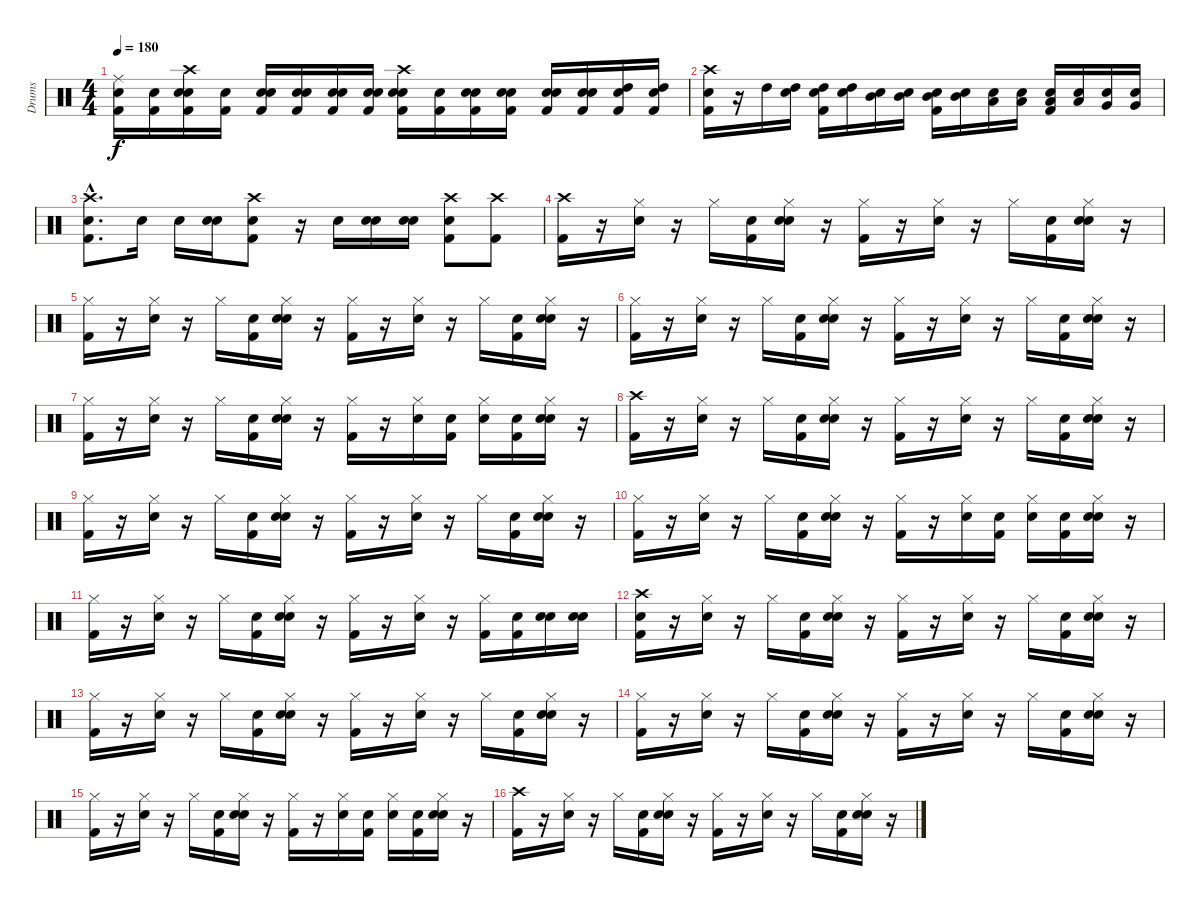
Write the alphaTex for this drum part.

\track ("Drums" "Drums") {instrument percussion}
\staff {score}
\articulation defaults
\ts (4 4)
\tempo 180
\clef neutral
\ks c
("Snare (hit)" "Ride (middle)" "Kick (hit) 2").16{dy f} ("Snare (hit)" "Kick (hit) 2").16 ("Snare (hit)" "Snare (hit) 2" "Crash high (hit)" "Kick (hit) 2").16 ("Snare (hit)" "Kick (hit) 2").16 ("Snare (hit)" "Snare (hit) 2" "Kick (hit) 2").16 ("Snare (hit)" "Snare (hit) 2" "Kick (hit) 2").16 ("Snare (hit)" "Snare (hit) 2" "Kick (hit) 2").16 ("Snare (hit)" "Snare (hit) 2" "Kick (hit) 2").16 ("Snare (hit)" "Crash high (hit)" "Snare (hit) 2" "Kick (hit) 2").16 ("Snare (hit)" "Kick (hit) 2").16 ("Snare (hit)" "Snare (hit) 2" "Kick (hit) 2").16 ("Snare (hit)" "Snare (hit) 2" "Kick (hit) 2").16 ("Snare (hit)" "Snare (hit) 2" "Kick (hit) 2").16 ("Snare (hit)" "Kick (hit) 2" "Snare (hit) 2").16 ("Snare (hit)" "High Tom (hit)" "Kick (hit) 2").16 ("Snare (hit)" "High Tom (hit)" "Kick (hit) 2").16 |
("Snare (hit)" "Crash high (hit)" "Kick (hit) 2").16 r.16 "High Tom (hit)".16 ("Snare (hit)" "High Tom (hit)").16 ("Snare (hit)" "High Tom (hit)" "Kick (hit) 2").16 ("Snare (hit)" "High Tom (hit)").16 ("Snare (hit)" "Mid Tom (hit)").16 ("Snare (hit)" "Mid Tom (hit)").16 ("Snare (hit)" "Mid Tom (hit)" "Kick (hit) 2").16 ("Snare (hit)" "Mid Tom (hit)").16 ("Snare (hit)" "Low Tom (hit)").16 ("Snare (hit)" "Low Tom (hit)").16 ("Snare (hit)" "Low Tom (hit)" "Kick (hit) 2").16 ("Snare (hit)" "Low Tom (hit)").16 ("Snare (hit)" "Very Low Tom (hit)").16 ("Snare (hit)" "Very Low Tom (hit)").16 |
("Snare (hit)"{hac} "Crash high (hit)"{hac} "Kick (hit) 2"{hac}).8{d} "Snare (hit) 2".16 "Snare (hit) 2".16 ("Snare (hit)" "Snare (hit) 2").16 ("Snare (hit)" "Crash high (hit)" "Kick (hit) 2").8 r.16 "Snare (hit) 2".16 ("Snare (hit)" "Snare (hit) 2").16 ("Snare (hit)" "Snare (hit) 2").16 ("Snare (hit)" "Crash high (hit)" "Kick (hit) 2").8 ("Crash high (hit)" "Kick (hit) 2").8 |
("Crash high (hit)" "Kick (hit) 2").16 r.16 ("Snare (hit) 2" "Hi-Hat (closed)").16 r.16 "Hi-Hat (closed)".16 ("Snare (hit)" "Kick (hit) 2").16 ("Snare (hit)" "Snare (hit) 2" "Hi-Hat (closed)").16 r.16 ("Kick (hit) 2" "Hi-Hat (closed)").16 r.16 ("Snare (hit) 2" "Hi-Hat (closed)").16 r.16 "Hi-Hat (closed)".16 ("Snare (hit)" "Kick (hit) 2").16 ("Snare (hit)" "Snare (hit) 2" "Hi-Hat (closed)").16 r.16 |
("Kick (hit) 2" "Hi-Hat (closed)").16 r.16 ("Snare (hit) 2" "Hi-Hat (closed)").16 r.16 "Hi-Hat (closed)".16 ("Snare (hit)" "Kick (hit) 2").16 ("Snare (hit)" "Snare (hit) 2" "Hi-Hat (closed)").16 r.16 ("Kick (hit) 2" "Hi-Hat (closed)").16 r.16 ("Snare (hit) 2" "Hi-Hat (closed)").16 r.16 "Hi-Hat (closed)".16 ("Snare (hit)" "Kick (hit) 2").16 ("Snare (hit)" "Snare (hit) 2" "Hi-Hat (closed)").16 r.16 |
("Kick (hit) 2" "Hi-Hat (closed)").16 r.16 ("Snare (hit) 2" "Hi-Hat (closed)").16 r.16 "Hi-Hat (closed)".16 ("Snare (hit)" "Kick (hit) 2").16 ("Snare (hit)" "Snare (hit) 2" "Hi-Hat (closed)").16 r.16 ("Kick (hit) 2" "Hi-Hat (closed)").16 r.16 ("Snare (hit) 2" "Hi-Hat (closed)").16 r.16 "Hi-Hat (closed)".16 ("Snare (hit)" "Kick (hit) 2").16 ("Snare (hit)" "Snare (hit) 2" "Hi-Hat (closed)").16 r.16 |
("Kick (hit) 2" "Hi-Hat (closed)").16 r.16 ("Snare (hit) 2" "Hi-Hat (closed)").16 r.16 "Hi-Hat (closed)".16 ("Snare (hit)" "Kick (hit) 2").16 ("Snare (hit)" "Snare (hit) 2" "Hi-Hat (closed)").16 r.16 ("Kick (hit) 2" "Hi-Hat (closed)").16 r.16 ("Snare (hit) 2" "Hi-Hat (closed)").16 ("Snare (hit)" "Kick (hit) 2").16 ("Snare (hit)" "Hi-Hat (closed)").16 ("Snare (hit)" "Kick (hit) 2").16 ("Snare (hit)" "Snare (hit) 2" "Hi-Hat (closed)").16 r.16 |
("Kick (hit) 2" "Crash high (hit)").16 r.16 ("Hi-Hat (closed)" "Snare (hit) 2").16 r.16 "Hi-Hat (closed)".16 ("Snare (hit)" "Kick (hit) 2").16 ("Snare (hit)" "Snare (hit) 2" "Hi-Hat (closed)").16 r.16 ("Kick (hit) 2" "Hi-Hat (closed)").16 r.16 ("Snare (hit) 2" "Hi-Hat (closed)").16 r.16 "Hi-Hat (closed)".16 ("Snare (hit)" "Kick (hit) 2").16 ("Snare (hit)" "Snare (hit) 2" "Hi-Hat (closed)").16 r.16 |
("Kick (hit) 2" "Hi-Hat (closed)").16 r.16 ("Snare (hit) 2" "Hi-Hat (closed)").16 r.16 "Hi-Hat (closed)".16 ("Snare (hit)" "Kick (hit) 2").16 ("Snare (hit)" "Snare (hit) 2" "Hi-Hat (closed)").16 r.16 ("Kick (hit) 2" "Hi-Hat (closed)").16 r.16 ("Snare (hit) 2" "Hi-Hat (closed)").16 r.16 "Hi-Hat (closed)".16 ("Snare (hit)" "Kick (hit) 2").16 ("Snare (hit)" "Snare (hit) 2" "Hi-Hat (closed)").16 r.16 |
("Kick (hit) 2" "Hi-Hat (closed)").16 r.16 ("Snare (hit) 2" "Hi-Hat (closed)").16 r.16 "Hi-Hat (closed)".16 ("Snare (hit)" "Kick (hit) 2").16 ("Snare (hit)" "Snare (hit) 2" "Hi-Hat (closed)").16 r.16 ("Hi-Hat (closed)" "Kick (hit) 2").16 r.16 ("Snare (hit) 2" "Hi-Hat (closed)").16 ("Snare (hit)" "Kick (hit) 2").16 ("Snare (hit)" "Hi-Hat (closed)").16 ("Snare (hit)" "Kick (hit) 2").16 ("Snare (hit)" "Snare (hit) 2" "Hi-Hat (closed)").16 r.16 |
("Kick (hit) 2" "Hi-Hat (closed)").16 r.16 ("Snare (hit) 2" "Hi-Hat (closed)").16 r.16 "Hi-Hat (closed)".16 ("Snare (hit)" "Kick (hit) 2").16 ("Snare (hit)" "Snare (hit) 2" "Hi-Hat (closed)").16 r.16 ("Kick (hit) 2" "Hi-Hat (closed)").16 r.16 ("Snare (hit) 2" "Hi-Hat (closed)").16 r.16 ("Kick (hit) 2" "Hi-Hat (closed)").16 ("Snare (hit)" "Kick (hit) 2").16 ("Snare (hit)" "Snare (hit) 2").16 ("Snare (hit)" "Snare (hit) 2").16 |
("Snare (hit)" "Kick (hit) 2" "Crash high (hit)").16 r.16 ("Snare (hit) 2" "Hi-Hat (closed)").16 r.16 "Hi-Hat (closed)".16 ("Snare (hit)" "Kick (hit) 2").16 ("Snare (hit)" "Snare (hit) 2" "Hi-Hat (closed)").16 r.16 ("Kick (hit) 2" "Hi-Hat (closed)").16 r.16 ("Snare (hit) 2" "Hi-Hat (closed)").16 r.16 "Hi-Hat (closed)".16 ("Snare (hit)" "Kick (hit) 2").16 ("Snare (hit)" "Snare (hit) 2" "Hi-Hat (closed)").16 r.16 |
("Kick (hit) 2" "Hi-Hat (closed)").16 r.16 ("Snare (hit) 2" "Hi-Hat (closed)").16 r.16 "Hi-Hat (closed)".16 ("Snare (hit)" "Kick (hit) 2").16 ("Snare (hit)" "Snare (hit) 2" "Hi-Hat (closed)").16 r.16 ("Kick (hit) 2" "Hi-Hat (closed)").16 r.16 ("Snare (hit) 2" "Hi-Hat (closed)").16 r.16 "Hi-Hat (closed)".16 ("Snare (hit)" "Kick (hit) 2").16 ("Snare (hit)" "Snare (hit) 2" "Hi-Hat (closed)").16 r.16 |
("Kick (hit) 2" "Hi-Hat (closed)").16 r.16 ("Snare (hit) 2" "Hi-Hat (closed)").16 r.16 "Hi-Hat (closed)".16 ("Snare (hit)" "Kick (hit) 2").16 ("Snare (hit)" "Snare (hit) 2" "Hi-Hat (closed)").16 r.16 ("Kick (hit) 2" "Hi-Hat (closed)").16 r.16 ("Snare (hit) 2" "Hi-Hat (closed)").16 r.16 "Hi-Hat (closed)".16 ("Snare (hit)" "Kick (hit) 2").16 ("Snare (hit)" "Snare (hit) 2" "Hi-Hat (closed)").16 r.16 |
("Kick (hit) 2" "Hi-Hat (closed)").16 r.16 ("Snare (hit) 2" "Hi-Hat (closed)").16 r.16 "Hi-Hat (closed)".16 ("Snare (hit)" "Kick (hit) 2").16 ("Snare (hit)" "Snare (hit) 2" "Hi-Hat (closed)").16 r.16 ("Kick (hit) 2" "Hi-Hat (closed)").16 r.16 ("Snare (hit) 2" "Hi-Hat (closed)").16 ("Snare (hit)" "Kick (hit) 2").16 ("Snare (hit)" "Hi-Hat (closed)").16 ("Snare (hit)" "Kick (hit) 2").16 ("Snare (hit)" "Snare (hit) 2" "Hi-Hat (closed)").16 r.16 |
("Kick (hit) 2" "Crash high (hit)").16 r.16 ("Snare (hit) 2" "Hi-Hat (closed)").16 r.16 "Hi-Hat (closed)".16 ("Snare (hit)" "Kick (hit) 2").16 ("Snare (hit)" "Snare (hit) 2" "Hi-Hat (closed)").16 r.16 ("Kick (hit) 2" "Hi-Hat (closed)").16 r.16 ("Snare (hit) 2" "Hi-Hat (closed)").16 r.16 "Hi-Hat (closed)".16 ("Snare (hit)" "Kick (hit) 2").16 ("Snare (hit)" "Snare (hit) 2" "Hi-Hat (closed)").16 r.16
